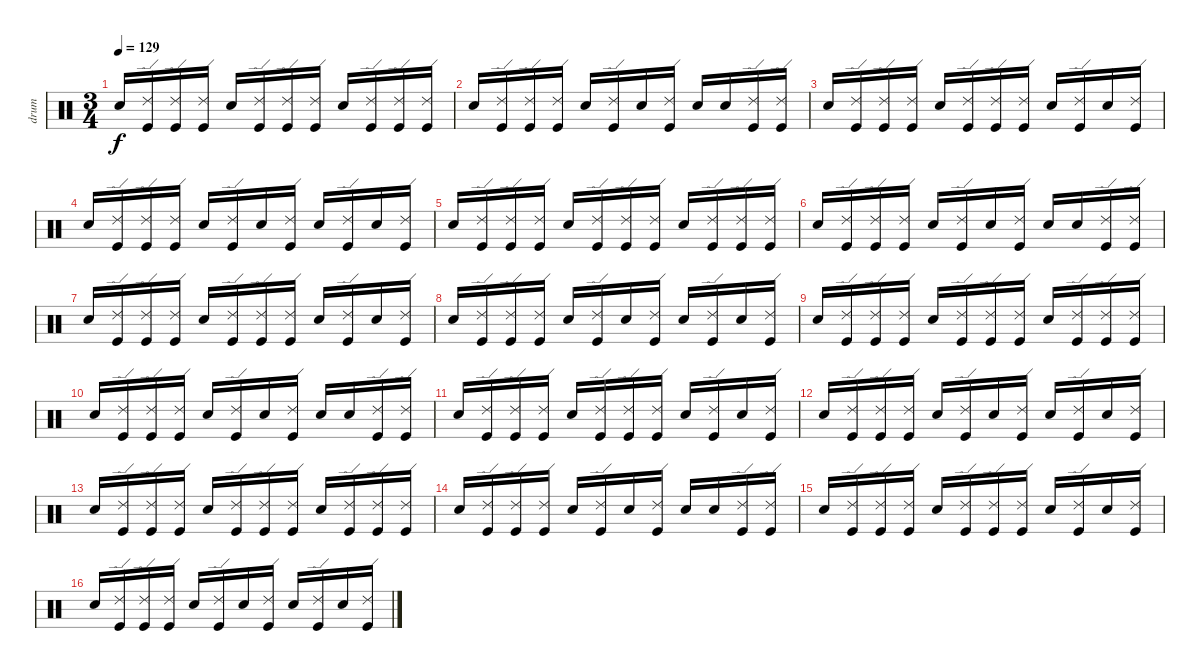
\track ("drum" "drum") {instrument percussion}
\staff {score}
\articulation defaults
\ts (3 4)
\tempo 129
\clef neutral
\ks c "Electric Snare (hit)".16{dy f}
("Kick (hit)" "Ride (edge) 2").16 ("Kick (hit)" "Ride (edge) 2").16 ("Kick (hit)" "Ride (edge) 2").16 "Electric Snare (hit)".16 ("Kick (hit)" "Ride (edge) 2").16 ("Kick (hit)" "Ride (edge) 2").16 ("Kick (hit)" "Ride (edge) 2").16 "Electric Snare (hit)".16 ("Kick (hit)" "Ride (edge) 2").16 ("Kick (hit)" "Ride (edge) 2").16 ("Kick (hit)" "Ride (edge) 2").16 |
"Electric Snare (hit)".16 ("Kick (hit)" "Ride (edge) 2").16 ("Kick (hit)" "Ride (edge) 2").16 ("Kick (hit)" "Ride (edge) 2").16 "Electric Snare (hit)".16 ("Kick (hit)" "Ride (edge) 2").16 "Electric Snare (hit)".16 ("Kick (hit)" "Ride (edge) 2").16 "Electric Snare (hit)".16 "Electric Snare (hit)".16 ("Kick (hit)" "Ride (edge) 2").16 ("Kick (hit)" "Ride (edge) 2").16 |
"Electric Snare (hit)".16 ("Kick (hit)" "Ride (edge) 2").16 ("Kick (hit)" "Ride (edge) 2").16 ("Kick (hit)" "Ride (edge) 2").16 "Electric Snare (hit)".16 ("Kick (hit)" "Ride (edge) 2").16 ("Kick (hit)" "Ride (edge) 2").16 ("Kick (hit)" "Ride (edge) 2").16 "Electric Snare (hit)".16 ("Kick (hit)" "Ride (edge) 2").16 "Electric Snare (hit)".16 ("Kick (hit)" "Ride (edge) 2").16 |
"Electric Snare (hit)".16 ("Kick (hit)" "Ride (edge) 2").16 ("Kick (hit)" "Ride (edge) 2").16 ("Kick (hit)" "Ride (edge) 2").16 "Electric Snare (hit)".16 ("Kick (hit)" "Ride (edge) 2").16 "Electric Snare (hit)".16 ("Kick (hit)" "Ride (edge) 2").16 "Electric Snare (hit)".16 ("Kick (hit)" "Ride (edge) 2").16 "Electric Snare (hit)".16 ("Kick (hit)" "Ride (edge) 2").16 |
"Electric Snare (hit)".16 ("Kick (hit)" "Ride (edge) 2").16 ("Kick (hit)" "Ride (edge) 2").16 ("Kick (hit)" "Ride (edge) 2").16 "Electric Snare (hit)".16 ("Kick (hit)" "Ride (edge) 2").16 ("Kick (hit)" "Ride (edge) 2").16 ("Kick (hit)" "Ride (edge) 2").16 "Electric Snare (hit)".16 ("Kick (hit)" "Ride (edge) 2").16 ("Kick (hit)" "Ride (edge) 2").16 ("Kick (hit)" "Ride (edge) 2").16 |
"Electric Snare (hit)".16 ("Kick (hit)" "Ride (edge) 2").16 ("Kick (hit)" "Ride (edge) 2").16 ("Kick (hit)" "Ride (edge) 2").16 "Electric Snare (hit)".16 ("Kick (hit)" "Ride (edge) 2").16 "Electric Snare (hit)".16 ("Kick (hit)" "Ride (edge) 2").16 "Electric Snare (hit)".16 "Electric Snare (hit)".16 ("Kick (hit)" "Ride (edge) 2").16 ("Kick (hit)" "Ride (edge) 2").16 |
"Electric Snare (hit)".16 ("Kick (hit)" "Ride (edge) 2").16 ("Kick (hit)" "Ride (edge) 2").16 ("Kick (hit)" "Ride (edge) 2").16 "Electric Snare (hit)".16 ("Kick (hit)" "Ride (edge) 2").16 ("Kick (hit)" "Ride (edge) 2").16 ("Kick (hit)" "Ride (edge) 2").16 "Electric Snare (hit)".16 ("Kick (hit)" "Ride (edge) 2").16 "Electric Snare (hit)".16 ("Kick (hit)" "Ride (edge) 2").16 |
"Electric Snare (hit)".16 ("Kick (hit)" "Ride (edge) 2").16 ("Kick (hit)" "Ride (edge) 2").16 ("Kick (hit)" "Ride (edge) 2").16 "Electric Snare (hit)".16 ("Kick (hit)" "Ride (edge) 2").16 "Electric Snare (hit)".16 ("Kick (hit)" "Ride (edge) 2").16 "Electric Snare (hit)".16 ("Kick (hit)" "Ride (edge) 2").16 "Electric Snare (hit)".16 ("Kick (hit)" "Ride (edge) 2").16 |
"Electric Snare (hit)".16 ("Kick (hit)" "Ride (edge) 2").16 ("Kick (hit)" "Ride (edge) 2").16 ("Kick (hit)" "Ride (edge) 2").16 "Electric Snare (hit)".16 ("Kick (hit)" "Ride (edge) 2").16 ("Kick (hit)" "Ride (edge) 2").16 ("Kick (hit)" "Ride (edge) 2").16 "Electric Snare (hit)".16 ("Kick (hit)" "Ride (edge) 2").16 ("Kick (hit)" "Ride (edge) 2").16 ("Kick (hit)" "Ride (edge) 2").16 |
"Electric Snare (hit)".16 ("Kick (hit)" "Ride (edge) 2").16 ("Kick (hit)" "Ride (edge) 2").16 ("Kick (hit)" "Ride (edge) 2").16 "Electric Snare (hit)".16 ("Kick (hit)" "Ride (edge) 2").16 "Electric Snare (hit)".16 ("Kick (hit)" "Ride (edge) 2").16 "Electric Snare (hit)".16 "Electric Snare (hit)".16 ("Kick (hit)" "Ride (edge) 2").16 ("Kick (hit)" "Ride (edge) 2").16 |
"Electric Snare (hit)".16 ("Kick (hit)" "Ride (edge) 2").16 ("Kick (hit)" "Ride (edge) 2").16 ("Kick (hit)" "Ride (edge) 2").16 "Electric Snare (hit)".16 ("Kick (hit)" "Ride (edge) 2").16 ("Kick (hit)" "Ride (edge) 2").16 ("Kick (hit)" "Ride (edge) 2").16 "Electric Snare (hit)".16 ("Kick (hit)" "Ride (edge) 2").16 "Electric Snare (hit)".16 ("Kick (hit)" "Ride (edge) 2").16 |
"Electric Snare (hit)".16 ("Kick (hit)" "Ride (edge) 2").16 ("Kick (hit)" "Ride (edge) 2").16 ("Kick (hit)" "Ride (edge) 2").16 "Electric Snare (hit)".16 ("Kick (hit)" "Ride (edge) 2").16 "Electric Snare (hit)".16 ("Kick (hit)" "Ride (edge) 2").16 "Electric Snare (hit)".16 ("Kick (hit)" "Ride (edge) 2").16 "Electric Snare (hit)".16 ("Kick (hit)" "Ride (edge) 2").16 |
"Electric Snare (hit)".16 ("Kick (hit)" "Ride (edge) 2").16 ("Kick (hit)" "Ride (edge) 2").16 ("Kick (hit)" "Ride (edge) 2").16 "Electric Snare (hit)".16 ("Kick (hit)" "Ride (edge) 2").16 ("Kick (hit)" "Ride (edge) 2").16 ("Kick (hit)" "Ride (edge) 2").16 "Electric Snare (hit)".16 ("Kick (hit)" "Ride (edge) 2").16 ("Kick (hit)" "Ride (edge) 2").16 ("Kick (hit)" "Ride (edge) 2").16 |
"Electric Snare (hit)".16 ("Kick (hit)" "Ride (edge) 2").16 ("Kick (hit)" "Ride (edge) 2").16 ("Kick (hit)" "Ride (edge) 2").16 "Electric Snare (hit)".16 ("Kick (hit)" "Ride (edge) 2").16 "Electric Snare (hit)".16 ("Kick (hit)" "Ride (edge) 2").16 "Electric Snare (hit)".16 "Electric Snare (hit)".16 ("Kick (hit)" "Ride (edge) 2").16 ("Kick (hit)" "Ride (edge) 2").16 |
"Electric Snare (hit)".16 ("Kick (hit)" "Ride (edge) 2").16 ("Kick (hit)" "Ride (edge) 2").16 ("Kick (hit)" "Ride (edge) 2").16 "Electric Snare (hit)".16 ("Kick (hit)" "Ride (edge) 2").16 ("Kick (hit)" "Ride (edge) 2").16 ("Kick (hit)" "Ride (edge) 2").16 "Electric Snare (hit)".16 ("Kick (hit)" "Ride (edge) 2").16 "Electric Snare (hit)".16 ("Kick (hit)" "Ride (edge) 2").16 |
"Electric Snare (hit)".16 ("Kick (hit)" "Ride (edge) 2").16 ("Kick (hit)" "Ride (edge) 2").16 ("Kick (hit)" "Ride (edge) 2").16 "Electric Snare (hit)".16 ("Kick (hit)" "Ride (edge) 2").16 "Electric Snare (hit)".16 ("Kick (hit)" "Ride (edge) 2").16 "Electric Snare (hit)".16 ("Kick (hit)" "Ride (edge) 2").16 "Electric Snare (hit)".16 ("Kick (hit)" "Ride (edge) 2").16
